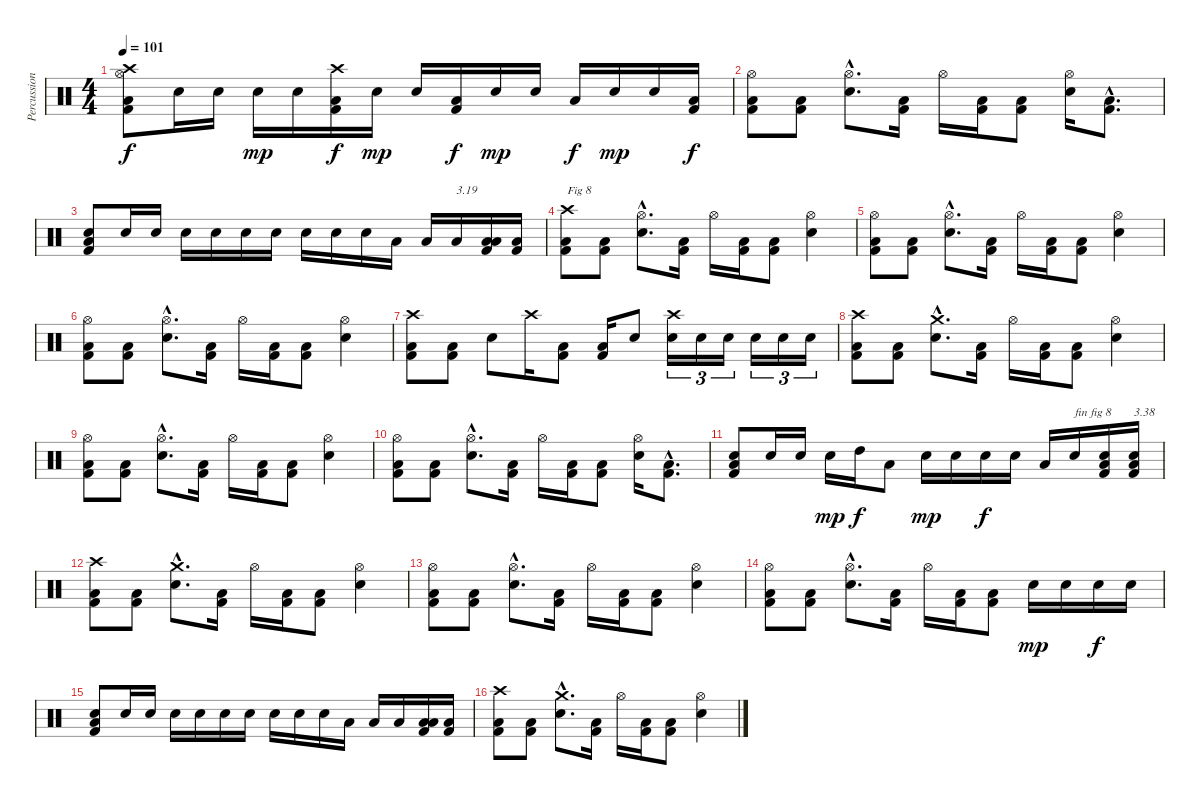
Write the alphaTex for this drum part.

\track ("Percussion" "Percussion") {instrument percussion}
\staff {score}
\articulation defaults
\ts (4 4)
\tempo 101
\clef neutral
\ks c
("Kick (hit) 2" "Low Floor Tom (hit)" "Hi-Hat (open)" "Crash high (hit)").8{dy f} "Snare (hit) 2".16 "Snare (hit) 2".16 "Snare (hit) 2".16{dy mp} "Snare (hit) 2".16 ("Kick (hit) 2" "Low Floor Tom (hit)" "Crash high (hit)").16{dy f} "Snare (hit) 2".16{dy mp} "Snare (hit) 2".16 ("Kick (hit) 2" "Low Floor Tom (hit)").16{dy f} "Snare (hit) 2".16{dy mp} "Snare (hit) 2".16 "Low Tom (hit)".16{dy f} "Snare (hit) 2".16{dy mp} "Snare (hit) 2".16 ("Kick (hit) 2" "Low Floor Tom (hit)").16{dy f} |
("Kick (hit) 2" "Low Floor Tom (hit)" "Hi-Hat (open)").8 ("Kick (hit) 2" "Low Floor Tom (hit)").8 ("Snare (hit) 2"{hac} "Hi-Hat (open)"{hac}).8{d} ("Kick (hit) 2" "Low Floor Tom (hit)").16 "Hi-Hat (open)".16 ("Kick (hit) 2" "Low Floor Tom (hit)").16 ("Kick (hit) 2" "Low Floor Tom (hit)").8 ("Snare (hit) 2" "Hi-Hat (open)").16 ("Kick (hit) 2"{hac} "Low Floor Tom (hit)"{hac}).8{d} |
("Kick (hit) 2" "Low Floor Tom (hit)" "Snare (hit) 2").8 "Snare (hit) 2".16 "Snare (hit) 2".16 "Snare (hit) 2".16 "Snare (hit) 2".16 "Snare (hit) 2".16 "Snare (hit) 2".16 "Snare (hit) 2".16 "Snare (hit) 2".16 "Snare (hit) 2".16 "Low Tom (hit)".16 "Low Tom (hit)".16 "Low Tom (hit)".16{txt "3.19"} ("Kick (hit) 2" "Low Floor Tom (hit)" "Low Tom (hit)").16 ("Kick (hit) 2" "Low Floor Tom (hit)").16 |
("Kick (hit) 2" "Low Floor Tom (hit)" "Crash high (hit)").8{txt "Fig 8"} ("Kick (hit) 2" "Low Floor Tom (hit)").8 ("Snare (hit) 2"{hac} "Hi-Hat (open)"{hac}).8{d} ("Kick (hit) 2" "Low Floor Tom (hit)").16 "Hi-Hat (open)".16 ("Kick (hit) 2" "Low Floor Tom (hit)").16 ("Kick (hit) 2" "Low Floor Tom (hit)").8 ("Snare (hit) 2" "Hi-Hat (open)").4 |
("Kick (hit) 2" "Low Floor Tom (hit)" "Hi-Hat (open)").8 ("Kick (hit) 2" "Low Floor Tom (hit)").8 ("Snare (hit) 2"{hac} "Hi-Hat (open)"{hac}).8{d} ("Kick (hit) 2" "Low Floor Tom (hit)").16 "Hi-Hat (open)".16 ("Kick (hit) 2" "Low Floor Tom (hit)").16 ("Kick (hit) 2" "Low Floor Tom (hit)").8 ("Snare (hit) 2" "Hi-Hat (open)").4 |
("Kick (hit) 2" "Low Floor Tom (hit)" "Hi-Hat (open)").8 ("Kick (hit) 2" "Low Floor Tom (hit)").8 ("Snare (hit) 2"{hac} "Hi-Hat (open)"{hac}).8{d} ("Kick (hit) 2" "Low Floor Tom (hit)").16 "Hi-Hat (open)".16 ("Kick (hit) 2" "Low Floor Tom (hit)").16 ("Kick (hit) 2" "Low Floor Tom (hit)").8 ("Snare (hit) 2" "Hi-Hat (open)").4 |
("Kick (hit) 2" "Low Floor Tom (hit)" "Crash high (hit)").8 ("Kick (hit) 2" "Low Floor Tom (hit)").8 "Snare (hit) 2".8 "Crash high (hit)".16 ("Kick (hit) 2" "Low Floor Tom (hit)").8 ("Kick (hit) 2" "Low Floor Tom (hit)").16 "Snare (hit) 2".8 ("Snare (hit) 2" "Crash high (hit)").16{tu (3 2)} "Snare (hit) 2".16{tu (3 2)} "Snare (hit) 2".16{tu (3 2)} "Snare (hit) 2".16{tu (3 2)} "Snare (hit) 2".16{tu (3 2)} "Snare (hit) 2".16{tu (3 2)} |
("Kick (hit) 2" "Low Floor Tom (hit)" "Crash high (hit)").8 ("Kick (hit) 2" "Low Floor Tom (hit)").8 ("Snare (hit) 2"{hac} "Crash medium (hit)"{hac}).8{d} ("Kick (hit) 2" "Low Floor Tom (hit)").16 "Hi-Hat (open)".16 ("Kick (hit) 2" "Low Floor Tom (hit)").16 ("Kick (hit) 2" "Low Floor Tom (hit)").8 ("Snare (hit) 2" "Hi-Hat (open)").4 |
("Kick (hit) 2" "Low Floor Tom (hit)" "Hi-Hat (open)").8 ("Kick (hit) 2" "Low Floor Tom (hit)").8 ("Snare (hit) 2"{hac} "Hi-Hat (open)"{hac}).8{d} ("Kick (hit) 2" "Low Floor Tom (hit)").16 "Hi-Hat (open)".16 ("Kick (hit) 2" "Low Floor Tom (hit)").16 ("Kick (hit) 2" "Low Floor Tom (hit)").8 ("Snare (hit) 2" "Hi-Hat (open)").4 |
("Kick (hit) 2" "Low Floor Tom (hit)" "Hi-Hat (open)").8 ("Kick (hit) 2" "Low Floor Tom (hit)").8 ("Snare (hit) 2"{hac} "Hi-Hat (open)"{hac}).8{d} ("Kick (hit) 2" "Low Floor Tom (hit)").16 "Hi-Hat (open)".16 ("Kick (hit) 2" "Low Floor Tom (hit)").16 ("Kick (hit) 2" "Low Floor Tom (hit)").8 ("Snare (hit) 2" "Hi-Hat (open)").16 ("Kick (hit) 2"{hac} "Low Floor Tom (hit)"{hac}).8{d} |
("Kick (hit) 2" "Low Floor Tom (hit)" "Snare (hit) 2").8 "Snare (hit) 2".16 "Snare (hit) 2".16 "Snare (hit) 2".16{dy mp} "High Tom (hit)".16{dy f} "Low Tom (hit)".8 "Snare (hit) 2".16{dy mp} "Snare (hit) 2".16 "Snare (hit) 2".16{dy f} "Snare (hit) 2".16 "Low Tom (hit)".16 "Snare (hit) 2".16{txt "fin fig 8"} ("Kick (hit) 2" "Low Floor Tom (hit)" "Snare (hit) 2").16 ("Kick (hit) 2" "Low Floor Tom (hit)" "Snare (hit) 2").16{txt "3.38"} |
("Kick (hit) 2" "Low Floor Tom (hit)" "Crash high (hit)").8 ("Kick (hit) 2" "Low Floor Tom (hit)").8 ("Snare (hit) 2"{hac} "Crash medium (hit)"{hac}).8{d} ("Kick (hit) 2" "Low Floor Tom (hit)").16 "Hi-Hat (open)".16 ("Kick (hit) 2" "Low Floor Tom (hit)").16 ("Kick (hit) 2" "Low Floor Tom (hit)").8 ("Snare (hit) 2" "Hi-Hat (open)").4 |
("Kick (hit) 2" "Low Floor Tom (hit)" "Hi-Hat (open)").8 ("Kick (hit) 2" "Low Floor Tom (hit)").8 ("Snare (hit) 2"{hac} "Hi-Hat (open)"{hac}).8{d} ("Kick (hit) 2" "Low Floor Tom (hit)").16 "Hi-Hat (open)".16 ("Kick (hit) 2" "Low Floor Tom (hit)").16 ("Kick (hit) 2" "Low Floor Tom (hit)").8 ("Snare (hit) 2" "Hi-Hat (open)").4 |
("Kick (hit) 2" "Low Floor Tom (hit)" "Hi-Hat (open)").8 ("Kick (hit) 2" "Low Floor Tom (hit)").8 ("Snare (hit) 2"{hac} "Hi-Hat (open)"{hac}).8{d} ("Kick (hit) 2" "Low Floor Tom (hit)").16 "Hi-Hat (open)".16 ("Kick (hit) 2" "Low Floor Tom (hit)").16 ("Kick (hit) 2" "Low Floor Tom (hit)").8 "Snare (hit) 2".16{dy mp} "Snare (hit) 2".16 "Snare (hit) 2".16{dy f} "Snare (hit) 2".16 |
("Kick (hit) 2" "Low Floor Tom (hit)" "Snare (hit) 2").8 "Snare (hit) 2".16 "Snare (hit) 2".16 "Snare (hit) 2".16 "Snare (hit) 2".16 "Snare (hit) 2".16 "Snare (hit) 2".16 "Snare (hit) 2".16 "Snare (hit) 2".16 "Snare (hit) 2".16 "Low Tom (hit)".16 "Low Tom (hit)".16 "Low Tom (hit)".16 ("Kick (hit) 2" "Low Floor Tom (hit)" "Low Tom (hit)").16 ("Kick (hit) 2" "Low Floor Tom (hit)").16 |
("Kick (hit) 2" "Low Floor Tom (hit)" "Crash high (hit)").8 ("Kick (hit) 2" "Low Floor Tom (hit)").8 ("Snare (hit) 2"{hac} "Crash medium (hit)"{hac}).8{d} ("Kick (hit) 2" "Low Floor Tom (hit)").16 "Hi-Hat (open)".16 ("Kick (hit) 2" "Low Floor Tom (hit)").16 ("Kick (hit) 2" "Low Floor Tom (hit)").8 ("Snare (hit) 2" "Hi-Hat (open)").4
